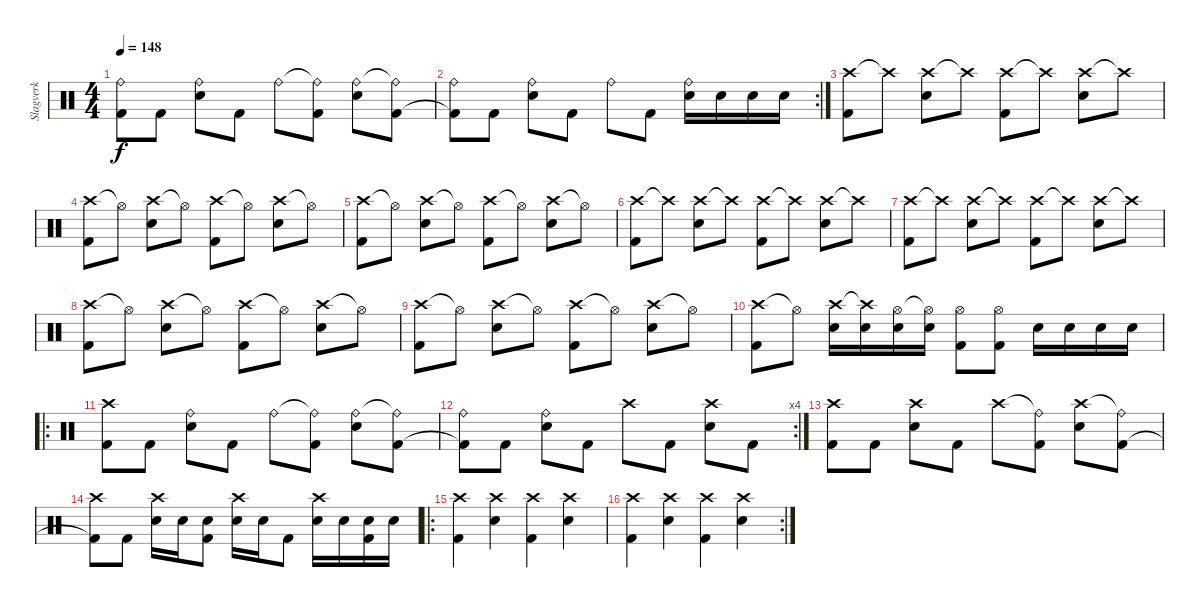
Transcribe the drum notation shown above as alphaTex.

\track ("Slagverk" "Slagverk") {instrument percussion}
\staff {score}
\articulation defaults
\ts (4 4)
\tempo 148
\clef neutral
\ks c
("Ride (bell)" "Kick (hit) 2").8{dy f} "Kick (hit) 2".8 ("Ride (bell)" "Electric Snare (hit)").8 "Kick (hit) 2".8 "Ride (bell)".8 ("Ride (bell)"{t} "Kick (hit) 2").8 ("Ride (bell)" "Electric Snare (hit)").8 ("Ride (bell)"{t} "Kick (hit) 2").8 |
\rc 2
("Ride (bell)" "Kick (hit) 2"{t}).8 "Kick (hit) 2".8 ("Ride (bell)" "Electric Snare (hit)").8 "Kick (hit) 2".8 "Ride (bell)".8 "Kick (hit) 2".8 ("Ride (bell)" "Electric Snare (hit)").16 "Electric Snare (hit)".16 "Electric Snare (hit)".16 "Electric Snare (hit)".16 |
("Crash high (hit)" "Kick (hit) 2").8 "Crash high (hit)"{t}.8 ("Crash high (hit)" "Electric Snare (hit)").8 "Crash high (hit)"{t}.8 ("Crash high (hit)" "Kick (hit) 2").8 "Crash high (hit)"{t}.8 ("Crash high (hit)" "Electric Snare (hit)").8 "Crash high (hit)"{t}.8 |
("Crash high (hit)" "Kick (hit) 2").8 "Hi-Hat (open)"{t}.8 ("Crash high (hit)" "Electric Snare (hit)").8 "Hi-Hat (open)"{t}.8 ("Crash high (hit)" "Kick (hit) 2").8 "Hi-Hat (open)"{t}.8 ("Crash high (hit)" "Electric Snare (hit)").8 "Hi-Hat (open)"{t}.8 |
("Crash high (hit)" "Kick (hit) 2").8 "Hi-Hat (open)"{t}.8 ("Crash high (hit)" "Electric Snare (hit)").8 "Hi-Hat (open)"{t}.8 ("Crash high (hit)" "Kick (hit) 2").8 "Hi-Hat (open)"{t}.8 ("Crash high (hit)" "Electric Snare (hit)").8 "Hi-Hat (open)"{t}.8 |
("Crash high (hit)" "Kick (hit) 2").8 "Crash high (hit)"{t}.8 ("Crash high (hit)" "Electric Snare (hit)").8 "Crash high (hit)"{t}.8 ("Crash high (hit)" "Kick (hit) 2").8 "Crash high (hit)"{t}.8 ("Crash high (hit)" "Electric Snare (hit)").8 "Crash high (hit)"{t}.8 |
("Crash high (hit)" "Kick (hit) 2").8 "Crash high (hit)"{t}.8 ("Crash high (hit)" "Electric Snare (hit)").8 "Crash high (hit)"{t}.8 ("Crash high (hit)" "Kick (hit) 2").8 "Crash high (hit)"{t}.8 ("Crash high (hit)" "Electric Snare (hit)").8 "Crash high (hit)"{t}.8 |
("Crash high (hit)" "Kick (hit) 2").8 "Hi-Hat (open)"{t}.8 ("Crash high (hit)" "Electric Snare (hit)").8 "Hi-Hat (open)"{t}.8 ("Crash high (hit)" "Kick (hit) 2").8 "Hi-Hat (open)"{t}.8 ("Crash high (hit)" "Electric Snare (hit)").8 "Hi-Hat (open)"{t}.8 |
("Crash high (hit)" "Kick (hit) 2").8 "Hi-Hat (open)"{t}.8 ("Crash high (hit)" "Electric Snare (hit)").8 "Hi-Hat (open)"{t}.8 ("Crash high (hit)" "Kick (hit) 2").8 "Hi-Hat (open)"{t}.8 ("Crash high (hit)" "Electric Snare (hit)").8 "Hi-Hat (open)"{t}.8 |
("Crash high (hit)" "Kick (hit) 2").8 "Hi-Hat (open)"{t}.8 ("Crash high (hit)" "Electric Snare (hit)").16 ("Crash high (hit)"{t} "Electric Snare (hit)").16 ("Hi-Hat (open)" "Electric Snare (hit)").16 ("Hi-Hat (open)"{t} "Electric Snare (hit)").16 ("Hi-Hat (open)" "Kick (hit) 2").8 ("Hi-Hat (open)" "Kick (hit) 2").8 "Electric Snare (hit)".16 "Electric Snare (hit)".16 "Electric Snare (hit)".16 "Electric Snare (hit)".16 |
\ro
("Crash high (hit)" "Kick (hit) 2").8 "Kick (hit) 2".8 ("Ride (bell)" "Electric Snare (hit)").8 "Kick (hit) 2".8 "Ride (bell)".8 ("Ride (bell)"{t} "Kick (hit) 2").8 ("Ride (bell)" "Electric Snare (hit)").8 ("Ride (bell)"{t} "Kick (hit) 2").8 |
\rc 4
("Ride (bell)" "Kick (hit) 2"{t}).8 "Kick (hit) 2".8 ("Ride (bell)" "Electric Snare (hit)").8 "Kick (hit) 2".8 "Crash high (hit)".8 "Kick (hit) 2".8 ("Crash high (hit)" "Electric Snare (hit)").8 "Kick (hit) 2".8 |
("Crash high (hit)" "Kick (hit) 2").8 "Kick (hit) 2".8 ("Crash high (hit)" "Electric Snare (hit)").8 "Kick (hit) 2".8 "Crash high (hit)".8 ("Ride (bell)"{t} "Kick (hit) 2").8 ("Crash high (hit)" "Electric Snare (hit)").8 ("Ride (bell)"{t} "Kick (hit) 2").8 |
("Crash high (hit)" "Kick (hit) 2"{t}).8 "Kick (hit) 2".8 ("Crash high (hit)" "Electric Snare (hit)").16 "Electric Snare (hit)".16 ("Electric Snare (hit)" "Kick (hit) 2").8 ("Crash high (hit)" "Electric Snare (hit)").16 "Electric Snare (hit)".16 "Kick (hit) 2".8 ("Crash high (hit)" "Electric Snare (hit)").16 "Electric Snare (hit)".16 ("Electric Snare (hit)" "Kick (hit) 2").16 "Electric Snare (hit)".16 |
\ro
("Crash high (hit)" "Kick (hit) 2").4 ("Crash high (hit)" "Electric Snare (hit)").4 ("Crash high (hit)" "Kick (hit) 2").4 ("Crash high (hit)" "Electric Snare (hit)").4 |
\rc 2
("Crash high (hit)" "Kick (hit) 2").4 ("Crash high (hit)" "Electric Snare (hit)").4 ("Crash high (hit)" "Kick (hit) 2").4 ("Crash high (hit)" "Electric Snare (hit)").4
